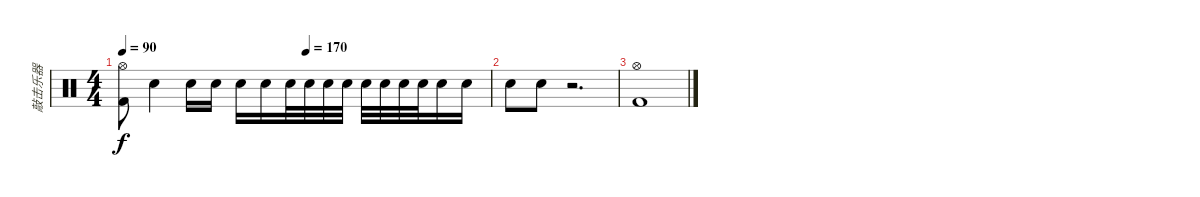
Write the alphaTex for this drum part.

\track ("敲击乐器" "敲击乐器") {instrument percussion}
\staff {score}
\articulation defaults
\ts (4 4)
\tempo 90
\tempo (170 0.5)
\clef neutral
\ks c
("Hi-Hat (open)" "Kick (hit) 2").8{dy f} "Snare (hit) 2".4 "Snare (hit) 2".16 "Snare (hit) 2".16 "Snare (hit) 2".16 "Snare (hit) 2".16 "Snare (hit) 2".32 "Snare (hit) 2".32 "Snare (hit) 2".32 "Snare (hit) 2".32 "Snare (hit) 2".32 "Snare (hit) 2".32 "Snare (hit) 2".32 "Snare (hit) 2".32 "Snare (hit) 2".16 "Snare (hit) 2".16 |
"Snare (hit) 2".8 "Snare (hit) 2".8 r.2{d} |
("Hi-Hat (open)" "Kick (hit) 2").1
